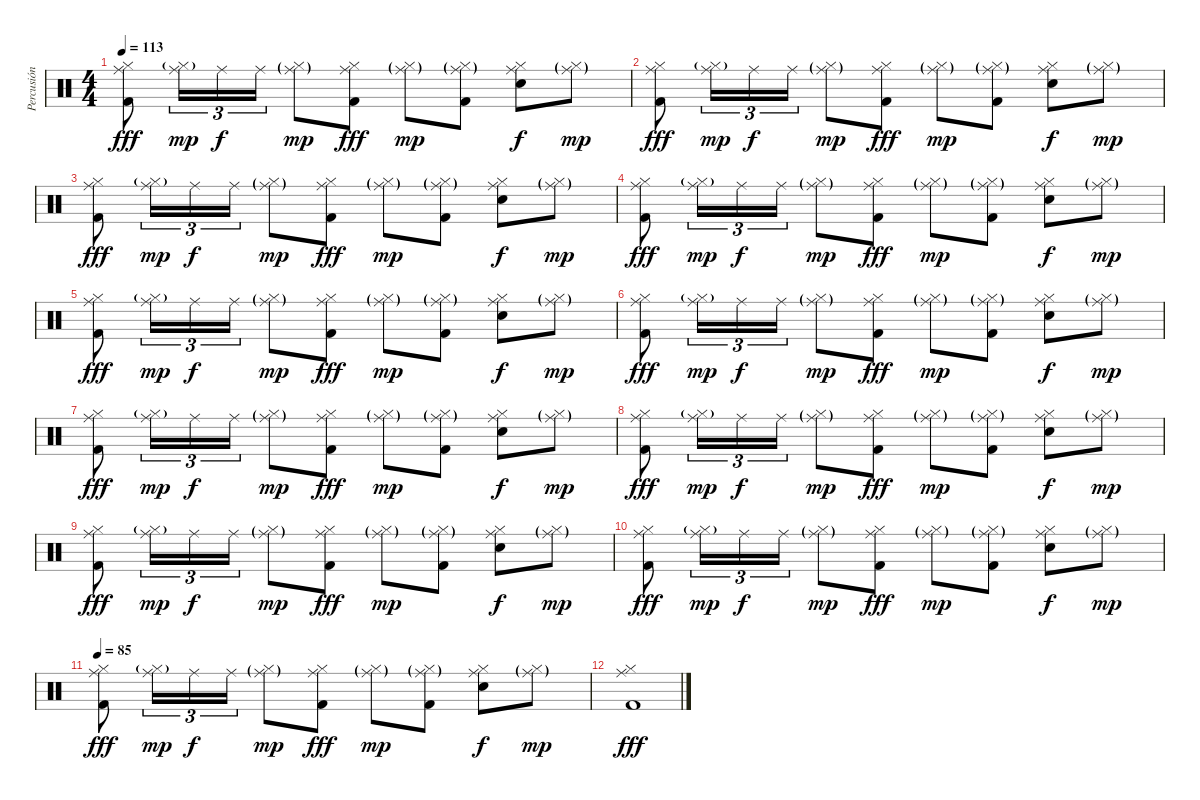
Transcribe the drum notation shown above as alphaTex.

\track ("Percusión" "Percusión") {instrument percussion}
\staff {score}
\articulation defaults
\ts (4 4)
\tempo 113
\clef neutral
\ks c
("Kick (hit) 2" "Hi-Hat (closed)" "Ride (middle)").8{dy fff} ("Hi-Hat (closed)"{g} "Ride (middle)").16{tu (3 2) dy mp} "Ride (middle)".16{tu (3 2) dy f} "Ride (middle)".16{tu (3 2)} ("Hi-Hat (closed)"{g} "Ride (middle)"{g}).8{dy mp} ("Kick (hit) 2" "Hi-Hat (closed)" "Ride (middle)").8{dy fff} ("Hi-Hat (closed)"{g} "Ride (middle)"{g}).8{dy mp} ("Kick (hit) 2" "Hi-Hat (closed)"{g} "Ride (middle)"{g}).8 ("Snare (hit) 2" "Hi-Hat (closed)" "Ride (middle)").8{dy f} ("Hi-Hat (closed)"{g} "Ride (middle)"{g}).8{dy mp} |
("Kick (hit) 2" "Hi-Hat (closed)" "Ride (middle)").8{dy fff} ("Hi-Hat (closed)"{g} "Ride (middle)").16{tu (3 2) dy mp} "Ride (middle)".16{tu (3 2) dy f} "Ride (middle)".16{tu (3 2)} ("Hi-Hat (closed)"{g} "Ride (middle)"{g}).8{dy mp} ("Kick (hit) 2" "Hi-Hat (closed)" "Ride (middle)").8{dy fff} ("Hi-Hat (closed)"{g} "Ride (middle)"{g}).8{dy mp} ("Kick (hit) 2" "Hi-Hat (closed)"{g} "Ride (middle)"{g}).8 ("Snare (hit) 2" "Hi-Hat (closed)" "Ride (middle)").8{dy f} ("Hi-Hat (closed)"{g} "Ride (middle)"{g}).8{dy mp} |
("Kick (hit) 2" "Hi-Hat (closed)" "Ride (middle)").8{dy fff} ("Hi-Hat (closed)"{g} "Ride (middle)").16{tu (3 2) dy mp} "Ride (middle)".16{tu (3 2) dy f} "Ride (middle)".16{tu (3 2)} ("Hi-Hat (closed)"{g} "Ride (middle)"{g}).8{dy mp} ("Kick (hit) 2" "Hi-Hat (closed)" "Ride (middle)").8{dy fff} ("Hi-Hat (closed)"{g} "Ride (middle)"{g}).8{dy mp} ("Kick (hit) 2" "Hi-Hat (closed)"{g} "Ride (middle)"{g}).8 ("Snare (hit) 2" "Hi-Hat (closed)" "Ride (middle)").8{dy f} ("Hi-Hat (closed)"{g} "Ride (middle)"{g}).8{dy mp} |
("Kick (hit) 2" "Hi-Hat (closed)" "Ride (middle)").8{dy fff} ("Hi-Hat (closed)"{g} "Ride (middle)").16{tu (3 2) dy mp} "Ride (middle)".16{tu (3 2) dy f} "Ride (middle)".16{tu (3 2)} ("Hi-Hat (closed)"{g} "Ride (middle)"{g}).8{dy mp} ("Kick (hit) 2" "Hi-Hat (closed)" "Ride (middle)").8{dy fff} ("Hi-Hat (closed)"{g} "Ride (middle)"{g}).8{dy mp} ("Kick (hit) 2" "Hi-Hat (closed)"{g} "Ride (middle)"{g}).8 ("Snare (hit) 2" "Hi-Hat (closed)" "Ride (middle)").8{dy f} ("Hi-Hat (closed)"{g} "Ride (middle)"{g}).8{dy mp} |
("Kick (hit) 2" "Hi-Hat (closed)" "Ride (middle)").8{dy fff} ("Hi-Hat (closed)"{g} "Ride (middle)").16{tu (3 2) dy mp} "Ride (middle)".16{tu (3 2) dy f} "Ride (middle)".16{tu (3 2)} ("Hi-Hat (closed)"{g} "Ride (middle)"{g}).8{dy mp} ("Kick (hit) 2" "Hi-Hat (closed)" "Ride (middle)").8{dy fff} ("Hi-Hat (closed)"{g} "Ride (middle)"{g}).8{dy mp} ("Kick (hit) 2" "Hi-Hat (closed)"{g} "Ride (middle)"{g}).8 ("Snare (hit) 2" "Hi-Hat (closed)" "Ride (middle)").8{dy f} ("Hi-Hat (closed)"{g} "Ride (middle)"{g}).8{dy mp} |
("Kick (hit) 2" "Hi-Hat (closed)" "Ride (middle)").8{dy fff} ("Hi-Hat (closed)"{g} "Ride (middle)").16{tu (3 2) dy mp} "Ride (middle)".16{tu (3 2) dy f} "Ride (middle)".16{tu (3 2)} ("Hi-Hat (closed)"{g} "Ride (middle)"{g}).8{dy mp} ("Kick (hit) 2" "Hi-Hat (closed)" "Ride (middle)").8{dy fff} ("Hi-Hat (closed)"{g} "Ride (middle)"{g}).8{dy mp} ("Kick (hit) 2" "Hi-Hat (closed)"{g} "Ride (middle)"{g}).8 ("Snare (hit) 2" "Hi-Hat (closed)" "Ride (middle)").8{dy f} ("Hi-Hat (closed)"{g} "Ride (middle)"{g}).8{dy mp} |
("Kick (hit) 2" "Hi-Hat (closed)" "Ride (middle)").8{dy fff} ("Hi-Hat (closed)"{g} "Ride (middle)").16{tu (3 2) dy mp} "Ride (middle)".16{tu (3 2) dy f} "Ride (middle)".16{tu (3 2)} ("Hi-Hat (closed)"{g} "Ride (middle)"{g}).8{dy mp} ("Kick (hit) 2" "Hi-Hat (closed)" "Ride (middle)").8{dy fff} ("Hi-Hat (closed)"{g} "Ride (middle)"{g}).8{dy mp} ("Kick (hit) 2" "Hi-Hat (closed)"{g} "Ride (middle)"{g}).8 ("Snare (hit) 2" "Hi-Hat (closed)" "Ride (middle)").8{dy f} ("Hi-Hat (closed)"{g} "Ride (middle)"{g}).8{dy mp} |
("Kick (hit) 2" "Hi-Hat (closed)" "Ride (middle)").8{dy fff} ("Hi-Hat (closed)"{g} "Ride (middle)").16{tu (3 2) dy mp} "Ride (middle)".16{tu (3 2) dy f} "Ride (middle)".16{tu (3 2)} ("Hi-Hat (closed)"{g} "Ride (middle)"{g}).8{dy mp} ("Kick (hit) 2" "Hi-Hat (closed)" "Ride (middle)").8{dy fff} ("Hi-Hat (closed)"{g} "Ride (middle)"{g}).8{dy mp} ("Kick (hit) 2" "Hi-Hat (closed)"{g} "Ride (middle)"{g}).8 ("Snare (hit) 2" "Hi-Hat (closed)" "Ride (middle)").8{dy f} ("Hi-Hat (closed)"{g} "Ride (middle)"{g}).8{dy mp} |
("Kick (hit) 2" "Hi-Hat (closed)" "Ride (middle)").8{dy fff} ("Hi-Hat (closed)"{g} "Ride (middle)").16{tu (3 2) dy mp} "Ride (middle)".16{tu (3 2) dy f} "Ride (middle)".16{tu (3 2)} ("Hi-Hat (closed)"{g} "Ride (middle)"{g}).8{dy mp} ("Kick (hit) 2" "Hi-Hat (closed)" "Ride (middle)").8{dy fff} ("Hi-Hat (closed)"{g} "Ride (middle)"{g}).8{dy mp} ("Kick (hit) 2" "Hi-Hat (closed)"{g} "Ride (middle)"{g}).8 ("Snare (hit) 2" "Hi-Hat (closed)" "Ride (middle)").8{dy f} ("Hi-Hat (closed)"{g} "Ride (middle)"{g}).8{dy mp} |
("Kick (hit) 2" "Hi-Hat (closed)" "Ride (middle)").8{dy fff} ("Hi-Hat (closed)"{g} "Ride (middle)").16{tu (3 2) dy mp} "Ride (middle)".16{tu (3 2) dy f} "Ride (middle)".16{tu (3 2)} ("Hi-Hat (closed)"{g} "Ride (middle)"{g}).8{dy mp} ("Kick (hit) 2" "Hi-Hat (closed)" "Ride (middle)").8{dy fff} ("Hi-Hat (closed)"{g} "Ride (middle)"{g}).8{dy mp} ("Kick (hit) 2" "Hi-Hat (closed)"{g} "Ride (middle)"{g}).8 ("Snare (hit) 2" "Hi-Hat (closed)" "Ride (middle)").8{dy f} ("Hi-Hat (closed)"{g} "Ride (middle)"{g}).8{dy mp} |
\tempo 85
("Kick (hit) 2" "Hi-Hat (closed)" "Ride (middle)").8{dy fff} ("Hi-Hat (closed)"{g} "Ride (middle)").16{tu (3 2) dy mp} "Ride (middle)".16{tu (3 2) dy f} "Ride (middle)".16{tu (3 2)} ("Hi-Hat (closed)"{g} "Ride (middle)"{g}).8{dy mp} ("Kick (hit) 2" "Hi-Hat (closed)" "Ride (middle)").8{dy fff} ("Hi-Hat (closed)"{g} "Ride (middle)"{g}).8{dy mp} ("Kick (hit) 2" "Hi-Hat (closed)"{g} "Ride (middle)"{g}).8 ("Snare (hit) 2" "Hi-Hat (closed)" "Ride (middle)").8{dy f} ("Hi-Hat (closed)"{g} "Ride (middle)"{g}).8{dy mp} |
("Kick (hit) 2" "Hi-Hat (closed)" "Ride (middle)").1{dy fff}
